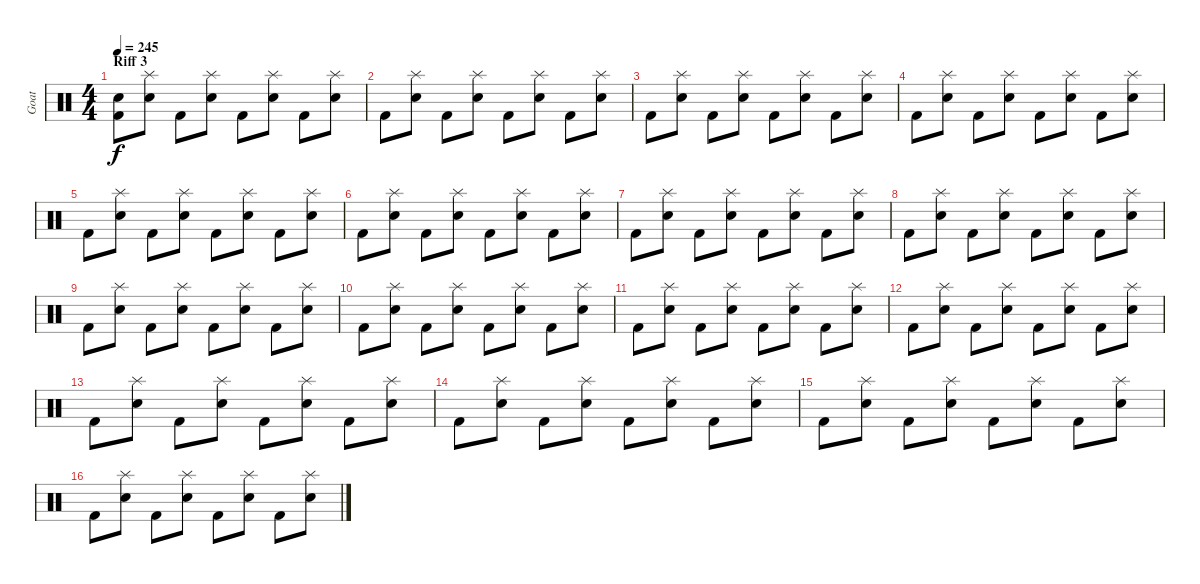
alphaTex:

\track ("Goat" "Goat") {instrument percussion}
\staff {score}
\articulation defaults
\ts (4 4)
\section ("" "Riff 3")
\tempo 245
\clef neutral
\ks c
("Snare (hit) 2" "Kick (hit) 2").8{dy f} ("Splash (hit)" "Snare (hit) 2").8 "Kick (hit) 2".8 ("Splash (hit)" "Snare (hit) 2").8 "Kick (hit) 2".8 ("Splash (hit)" "Snare (hit) 2").8 "Kick (hit) 2".8 ("Splash (hit)" "Snare (hit) 2").8 |
"Kick (hit) 2".8 ("Splash (hit)" "Snare (hit) 2").8 "Kick (hit) 2".8 ("Splash (hit)" "Snare (hit) 2").8 "Kick (hit) 2".8 ("Splash (hit)" "Snare (hit) 2").8 "Kick (hit) 2".8 ("Splash (hit)" "Snare (hit) 2").8 |
"Kick (hit) 2".8 ("Splash (hit)" "Snare (hit) 2").8 "Kick (hit) 2".8 ("Splash (hit)" "Snare (hit) 2").8 "Kick (hit) 2".8 ("Splash (hit)" "Snare (hit) 2").8 "Kick (hit) 2".8 ("Splash (hit)" "Snare (hit) 2").8 |
"Kick (hit) 2".8 ("Splash (hit)" "Snare (hit) 2").8 "Kick (hit) 2".8 ("Splash (hit)" "Snare (hit) 2").8 "Kick (hit) 2".8 ("Splash (hit)" "Snare (hit) 2").8 "Kick (hit) 2".8 ("Splash (hit)" "Snare (hit) 2").8 |
"Kick (hit) 2".8 ("Splash (hit)" "Snare (hit) 2").8 "Kick (hit) 2".8 ("Splash (hit)" "Snare (hit) 2").8 "Kick (hit) 2".8 ("Splash (hit)" "Snare (hit) 2").8 "Kick (hit) 2".8 ("Splash (hit)" "Snare (hit) 2").8 |
"Kick (hit) 2".8 ("Splash (hit)" "Snare (hit) 2").8 "Kick (hit) 2".8 ("Splash (hit)" "Snare (hit) 2").8 "Kick (hit) 2".8 ("Splash (hit)" "Snare (hit) 2").8 "Kick (hit) 2".8 ("Splash (hit)" "Snare (hit) 2").8 |
"Kick (hit) 2".8 ("Splash (hit)" "Snare (hit) 2").8 "Kick (hit) 2".8 ("Splash (hit)" "Snare (hit) 2").8 "Kick (hit) 2".8 ("Splash (hit)" "Snare (hit) 2").8 "Kick (hit) 2".8 ("Splash (hit)" "Snare (hit) 2").8 |
"Kick (hit) 2".8 ("Splash (hit)" "Snare (hit) 2").8 "Kick (hit) 2".8 ("Splash (hit)" "Snare (hit) 2").8 "Kick (hit) 2".8 ("Splash (hit)" "Snare (hit) 2").8 "Kick (hit) 2".8 ("Splash (hit)" "Snare (hit) 2").8 |
"Kick (hit) 2".8 ("Splash (hit)" "Snare (hit) 2").8 "Kick (hit) 2".8 ("Splash (hit)" "Snare (hit) 2").8 "Kick (hit) 2".8 ("Splash (hit)" "Snare (hit) 2").8 "Kick (hit) 2".8 ("Splash (hit)" "Snare (hit) 2").8 |
"Kick (hit) 2".8 ("Splash (hit)" "Snare (hit) 2").8 "Kick (hit) 2".8 ("Splash (hit)" "Snare (hit) 2").8 "Kick (hit) 2".8 ("Splash (hit)" "Snare (hit) 2").8 "Kick (hit) 2".8 ("Splash (hit)" "Snare (hit) 2").8 |
"Kick (hit) 2".8 ("Splash (hit)" "Snare (hit) 2").8 "Kick (hit) 2".8 ("Splash (hit)" "Snare (hit) 2").8 "Kick (hit) 2".8 ("Splash (hit)" "Snare (hit) 2").8 "Kick (hit) 2".8 ("Splash (hit)" "Snare (hit) 2").8 |
"Kick (hit) 2".8 ("Splash (hit)" "Snare (hit) 2").8 "Kick (hit) 2".8 ("Splash (hit)" "Snare (hit) 2").8 "Kick (hit) 2".8 ("Splash (hit)" "Snare (hit) 2").8 "Kick (hit) 2".8 ("Splash (hit)" "Snare (hit) 2").8 |
"Kick (hit) 2".8 ("Splash (hit)" "Snare (hit) 2").8 "Kick (hit) 2".8 ("Splash (hit)" "Snare (hit) 2").8 "Kick (hit) 2".8 ("Splash (hit)" "Snare (hit) 2").8 "Kick (hit) 2".8 ("Splash (hit)" "Snare (hit) 2").8 |
"Kick (hit) 2".8 ("Splash (hit)" "Snare (hit) 2").8 "Kick (hit) 2".8 ("Splash (hit)" "Snare (hit) 2").8 "Kick (hit) 2".8 ("Splash (hit)" "Snare (hit) 2").8 "Kick (hit) 2".8 ("Splash (hit)" "Snare (hit) 2").8 |
"Kick (hit) 2".8 ("Splash (hit)" "Snare (hit) 2").8 "Kick (hit) 2".8 ("Splash (hit)" "Snare (hit) 2").8 "Kick (hit) 2".8 ("Splash (hit)" "Snare (hit) 2").8 "Kick (hit) 2".8 ("Splash (hit)" "Snare (hit) 2").8 |
"Kick (hit) 2".8 ("Splash (hit)" "Snare (hit) 2").8 "Kick (hit) 2".8 ("Splash (hit)" "Snare (hit) 2").8 "Kick (hit) 2".8 ("Splash (hit)" "Snare (hit) 2").8 "Kick (hit) 2".8 ("Splash (hit)" "Snare (hit) 2").8
